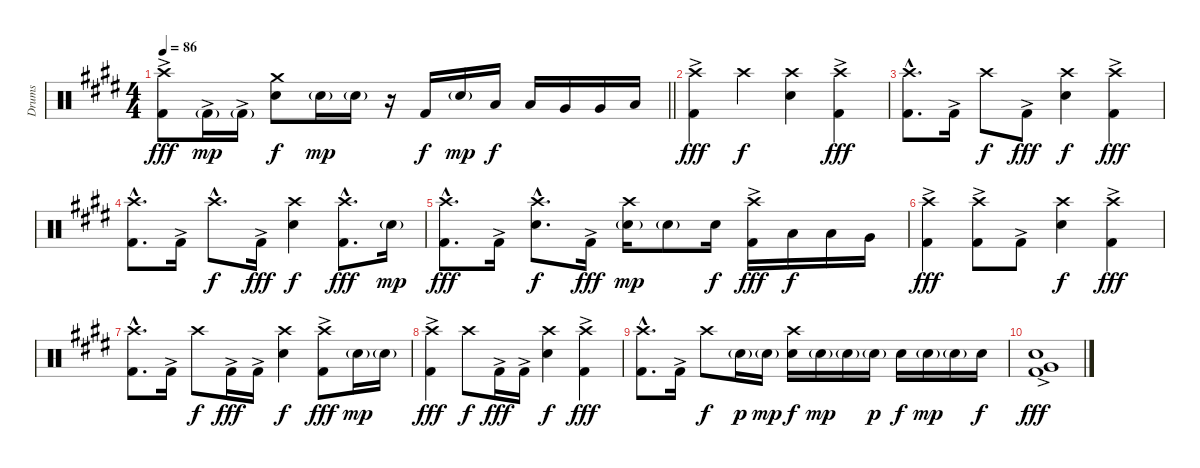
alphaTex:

\track ("Drums" "Drums") {instrument percussion}
\staff {score}
\articulation defaults
\ts (4 4)
\tempo 86
\clef neutral
\barLineRight lightlight
\ks c#minor
("Crash high (hit)" "Kick (hit) 2"{ac}).8{dy fff} "Kick (hit) 2"{g ac}.16{dy mp} "Kick (hit) 2"{g ac}.16 ("Crash medium (hit)" "Snare (hit) 2").8{dy f} "Snare (hit) 2"{g}.16{dy mp} "Snare (hit) 2"{g}.16 r.16 "Kick (hit) 2".16{dy f} "Snare (hit) 2"{g}.16{dy mp} "Low Tom (hit)".16{dy f} "Low Tom (hit)".16 "Very Low Tom (hit)".16 "Very Low Tom (hit)".16 "Low Floor Tom (hit)".16 |
("Crash high (hit)" "Kick (hit) 2"{ac}).4{dy fff} "Crash high (hit)".4{dy f} ("Crash high (hit)" "Snare (hit) 2").4 ("Crash high (hit)" "Kick (hit) 2"{ac}).4{dy fff} |
("Crash high (hit)"{hac} "Kick (hit) 2"{hac}).8{d} "Kick (hit) 2"{ac}.16 "Crash high (hit)".8{dy f} "Kick (hit) 2"{ac}.8{dy fff} ("Crash high (hit)" "Snare (hit) 2").4{dy f} ("Crash high (hit)" "Kick (hit) 2"{ac}).4{dy fff} |
("Crash high (hit)"{hac} "Kick (hit) 2"{hac}).8{d} "Kick (hit) 2"{ac}.16 "Crash high (hit)"{hac}.8{d dy f} "Kick (hit) 2"{ac}.16{dy fff} ("Crash high (hit)" "Snare (hit) 2").4{dy f} ("Crash high (hit)"{hac} "Kick (hit) 2"{hac}).8{d dy fff} "Snare (hit) 2"{g}.16{dy mp} |
("Crash high (hit)"{hac} "Kick (hit) 2"{hac}).8{d dy fff} "Kick (hit) 2"{ac}.16 ("Crash high (hit)"{hac} "Snare (hit) 2"{hac}).8{d dy f} "Kick (hit) 2"{ac}.16{dy fff} ("Crash high (hit)" "Snare (hit) 2"{g}).16{dy mp} "Snare (hit) 2"{g}.8 "Snare (hit) 2".16{dy f} ("Crash high (hit)" "Kick (hit) 2"{ac}).16{dy fff} "Low Tom (hit)".16{dy f} "Low Tom (hit)".16 "Very Low Tom (hit)".16 |
("Crash high (hit)" "Kick (hit) 2"{ac}).4{dy fff} ("Crash high (hit)" "Kick (hit) 2"{ac}).8 "Kick (hit) 2"{ac}.8 ("Crash high (hit)" "Snare (hit) 2").4{dy f} ("Crash high (hit)" "Kick (hit) 2"{ac}).4{dy fff} |
("Crash high (hit)"{hac} "Kick (hit) 2"{hac}).8{d} "Kick (hit) 2"{ac}.16 "Crash high (hit)".8{dy f} "Kick (hit) 2"{ac}.16{dy fff} "Kick (hit) 2"{ac}.16 ("Crash high (hit)" "Snare (hit) 2").4{dy f} ("Crash high (hit)" "Kick (hit) 2"{ac}).8{dy fff} "Snare (hit) 2"{g}.16{dy mp} "Snare (hit) 2"{g}.16 |
("Crash high (hit)" "Kick (hit) 2"{ac}).4{dy fff} "Crash high (hit)".8{dy f} "Kick (hit) 2"{ac}.16{dy fff} "Kick (hit) 2"{ac}.16 ("Crash high (hit)" "Snare (hit) 2").4{dy f} ("Crash high (hit)" "Kick (hit) 2"{ac}).4{dy fff} |
("Crash high (hit)"{hac} "Kick (hit) 2"{hac}).8{d} "Kick (hit) 2"{ac}.16 "Crash high (hit)".8{dy f} "Snare (hit) 2"{g}.16{dy p} "Snare (hit) 2"{g}.16{dy mp} ("Crash high (hit)" "Snare (hit) 2").16{dy f} "Snare (hit) 2"{g}.16{dy mp} "Snare (hit) 2"{g}.16 "Snare (hit) 2"{g}.16{dy p} "Snare (hit) 2".16{dy f} "Snare (hit) 2"{g}.16{dy mp} "Snare (hit) 2"{g}.16 "Snare (hit) 2".16{dy f} |
("Snare (hit) 2"{ac} "Very Low Tom (hit)"{ac} "Kick (hit) 2"{ac}).1{dy fff}
